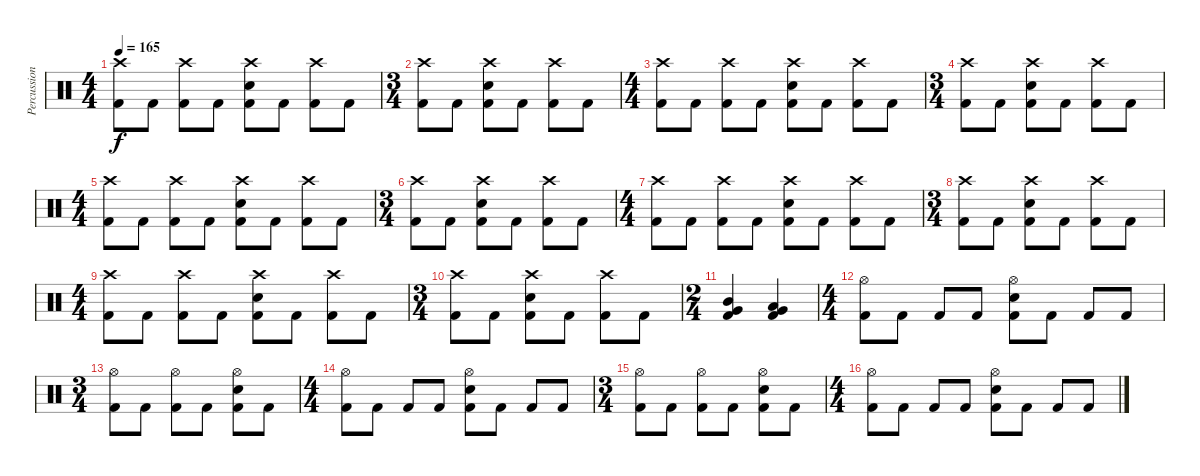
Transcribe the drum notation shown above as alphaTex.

\track ("Percussion" "Percussion") {instrument percussion}
\staff {score}
\articulation defaults
\ts (4 4)
\tempo 165
\clef neutral
\ks c
("Crash high (hit)" "Kick (hit) 2").8{dy f} "Kick (hit) 2".8 ("Crash high (hit)" "Kick (hit) 2").8 "Kick (hit) 2".8 ("Crash high (hit)" "Snare (hit) 2" "Kick (hit) 2").8 "Kick (hit) 2".8 ("Crash high (hit)" "Kick (hit) 2").8 "Kick (hit) 2".8 |
\ts (3 4)
("Crash high (hit)" "Kick (hit) 2").8 "Kick (hit) 2".8 ("Crash high (hit)" "Snare (hit) 2" "Kick (hit) 2").8 "Kick (hit) 2".8 ("Crash high (hit)" "Kick (hit) 2").8 "Kick (hit) 2".8 |
\ts (4 4)
("Crash high (hit)" "Kick (hit) 2").8 "Kick (hit) 2".8 ("Crash high (hit)" "Kick (hit) 2").8 "Kick (hit) 2".8 ("Crash high (hit)" "Snare (hit) 2" "Kick (hit) 2").8 "Kick (hit) 2".8 ("Crash high (hit)" "Kick (hit) 2").8 "Kick (hit) 2".8 |
\ts (3 4)
("Crash high (hit)" "Kick (hit) 2").8 "Kick (hit) 2".8 ("Crash high (hit)" "Snare (hit) 2" "Kick (hit) 2").8 "Kick (hit) 2".8 ("Crash high (hit)" "Kick (hit) 2").8 "Kick (hit) 2".8 |
\ts (4 4)
("Crash high (hit)" "Kick (hit) 2").8 "Kick (hit) 2".8 ("Crash high (hit)" "Kick (hit) 2").8 "Kick (hit) 2".8 ("Crash high (hit)" "Snare (hit) 2" "Kick (hit) 2").8 "Kick (hit) 2".8 ("Crash high (hit)" "Kick (hit) 2").8 "Kick (hit) 2".8 |
\ts (3 4)
("Crash high (hit)" "Kick (hit) 2").8 "Kick (hit) 2".8 ("Crash high (hit)" "Snare (hit) 2" "Kick (hit) 2").8 "Kick (hit) 2".8 ("Crash high (hit)" "Kick (hit) 2").8 "Kick (hit) 2".8 |
\ts (4 4)
("Crash high (hit)" "Kick (hit) 2").8 "Kick (hit) 2".8 ("Crash high (hit)" "Kick (hit) 2").8 "Kick (hit) 2".8 ("Crash high (hit)" "Snare (hit) 2" "Kick (hit) 2").8 "Kick (hit) 2".8 ("Crash high (hit)" "Kick (hit) 2").8 "Kick (hit) 2".8 |
\ts (3 4)
("Crash high (hit)" "Kick (hit) 2").8 "Kick (hit) 2".8 ("Crash high (hit)" "Snare (hit) 2" "Kick (hit) 2").8 "Kick (hit) 2".8 ("Crash high (hit)" "Kick (hit) 2").8 "Kick (hit) 2".8 |
\ts (4 4)
("Crash high (hit)" "Kick (hit) 2").8 "Kick (hit) 2".8 ("Crash high (hit)" "Kick (hit) 2").8 "Kick (hit) 2".8 ("Crash high (hit)" "Snare (hit) 2" "Kick (hit) 2").8 "Kick (hit) 2".8 ("Crash high (hit)" "Kick (hit) 2").8 "Kick (hit) 2".8 |
\ts (3 4)
("Crash high (hit)" "Kick (hit) 2").8 "Kick (hit) 2".8 ("Crash high (hit)" "Snare (hit) 2" "Kick (hit) 2").8 "Kick (hit) 2".8 ("Crash high (hit)" "Kick (hit) 2").8 "Kick (hit) 2".8 |
\ts (2 4)
("Very Low Tom (hit)" "Mid Tom (hit)" "Kick (hit) 2").4 ("Very Low Tom (hit)" "Low Tom (hit)" "Kick (hit) 2").4 |
\ts (4 4)
("Hi-Hat (open)" "Kick (hit) 2").8 "Kick (hit) 2".8 "Kick (hit) 2".8 "Kick (hit) 2".8 ("Hi-Hat (open)" "Snare (hit) 2" "Kick (hit) 2").8 "Kick (hit) 2".8 "Kick (hit) 2".8 "Kick (hit) 2".8 |
\ts (3 4)
("Hi-Hat (open)" "Kick (hit) 2").8 "Kick (hit) 2".8 ("Hi-Hat (open)" "Kick (hit) 2").8 "Kick (hit) 2".8 ("Hi-Hat (open)" "Snare (hit) 2" "Kick (hit) 2").8 "Kick (hit) 2".8 |
\ts (4 4)
("Hi-Hat (open)" "Kick (hit) 2").8 "Kick (hit) 2".8 "Kick (hit) 2".8 "Kick (hit) 2".8 ("Hi-Hat (open)" "Snare (hit) 2" "Kick (hit) 2").8 "Kick (hit) 2".8 "Kick (hit) 2".8 "Kick (hit) 2".8 |
\ts (3 4)
("Hi-Hat (open)" "Kick (hit) 2").8 "Kick (hit) 2".8 ("Hi-Hat (open)" "Kick (hit) 2").8 "Kick (hit) 2".8 ("Hi-Hat (open)" "Snare (hit) 2" "Kick (hit) 2").8 "Kick (hit) 2".8 |
\ts (4 4)
("Hi-Hat (open)" "Kick (hit) 2").8 "Kick (hit) 2".8 "Kick (hit) 2".8 "Kick (hit) 2".8 ("Hi-Hat (open)" "Snare (hit) 2" "Kick (hit) 2").8 "Kick (hit) 2".8 "Kick (hit) 2".8 "Kick (hit) 2".8
